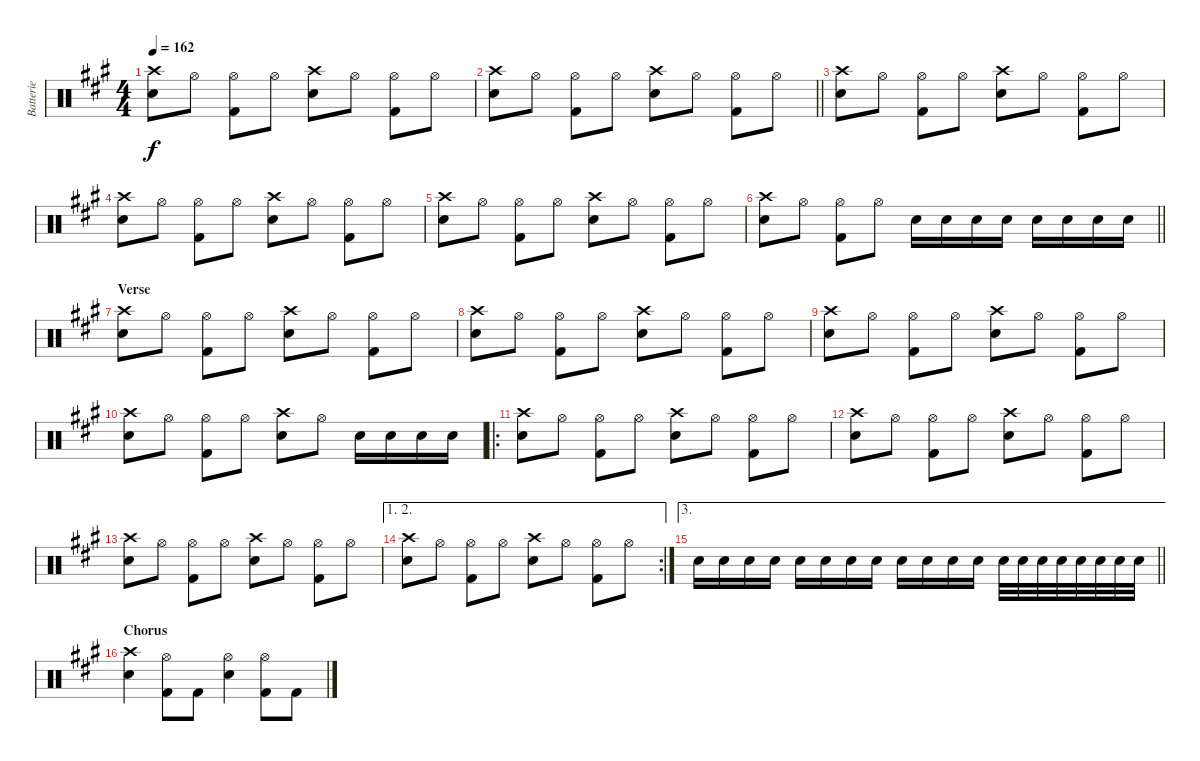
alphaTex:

\track ("Batterie" "Batterie") {instrument percussion}
\staff {score}
\articulation defaults
\ts (4 4)
\tempo 162
\clef neutral
\ks a
("Crash high (hit)" "Snare (hit) 2").8{dy f} "Hi-Hat (open)".8 ("Hi-Hat (open)" "Kick (hit) 2").8 "Hi-Hat (open)".8 ("Crash high (hit)" "Snare (hit) 2").8 "Hi-Hat (open)".8 ("Hi-Hat (open)" "Kick (hit) 2").8 "Hi-Hat (open)".8 |
\barLineRight lightlight
("Crash high (hit)" "Snare (hit) 2").8 "Hi-Hat (open)".8 ("Hi-Hat (open)" "Kick (hit) 2").8 "Hi-Hat (open)".8 ("Crash high (hit)" "Snare (hit) 2").8 "Hi-Hat (open)".8 ("Hi-Hat (open)" "Kick (hit) 2").8 "Hi-Hat (open)".8 |
("Crash high (hit)" "Snare (hit) 2").8 "Hi-Hat (open)".8 ("Hi-Hat (open)" "Kick (hit) 2").8 "Hi-Hat (open)".8 ("Crash high (hit)" "Snare (hit) 2").8 "Hi-Hat (open)".8 ("Hi-Hat (open)" "Kick (hit) 2").8 "Hi-Hat (open)".8 |
("Crash high (hit)" "Snare (hit) 2").8 "Hi-Hat (open)".8 ("Hi-Hat (open)" "Kick (hit) 2").8 "Hi-Hat (open)".8 ("Crash high (hit)" "Snare (hit) 2").8 "Hi-Hat (open)".8 ("Hi-Hat (open)" "Kick (hit) 2").8 "Hi-Hat (open)".8 |
("Crash high (hit)" "Snare (hit) 2").8 "Hi-Hat (open)".8 ("Hi-Hat (open)" "Kick (hit) 2").8 "Hi-Hat (open)".8 ("Crash high (hit)" "Snare (hit) 2").8 "Hi-Hat (open)".8 ("Hi-Hat (open)" "Kick (hit) 2").8 "Hi-Hat (open)".8 |
\barLineRight lightlight
("Crash high (hit)" "Snare (hit) 2").8 "Hi-Hat (open)".8 ("Hi-Hat (open)" "Kick (hit) 2").8 "Hi-Hat (open)".8 "Snare (hit) 2".16 "Snare (hit) 2".16 "Snare (hit) 2".16 "Snare (hit) 2".16 "Snare (hit) 2".16 "Snare (hit) 2".16 "Snare (hit) 2".16 "Snare (hit) 2".16 |
\section ("" "Verse")
("Crash high (hit)" "Snare (hit) 2").8 "Hi-Hat (open)".8 ("Hi-Hat (open)" "Kick (hit) 2").8 "Hi-Hat (open)".8 ("Crash high (hit)" "Snare (hit) 2").8 "Hi-Hat (open)".8 ("Hi-Hat (open)" "Kick (hit) 2").8 "Hi-Hat (open)".8 |
("Crash high (hit)" "Snare (hit) 2").8 "Hi-Hat (open)".8 ("Hi-Hat (open)" "Kick (hit) 2").8 "Hi-Hat (open)".8 ("Crash high (hit)" "Snare (hit) 2").8 "Hi-Hat (open)".8 ("Hi-Hat (open)" "Kick (hit) 2").8 "Hi-Hat (open)".8 |
("Crash high (hit)" "Snare (hit) 2").8 "Hi-Hat (open)".8 ("Hi-Hat (open)" "Kick (hit) 2").8 "Hi-Hat (open)".8 ("Crash high (hit)" "Snare (hit) 2").8 "Hi-Hat (open)".8 ("Hi-Hat (open)" "Kick (hit) 2").8 "Hi-Hat (open)".8 |
("Crash high (hit)" "Snare (hit) 2").8 "Hi-Hat (open)".8 ("Hi-Hat (open)" "Kick (hit) 2").8 "Hi-Hat (open)".8 ("Crash high (hit)" "Snare (hit) 2").8 "Hi-Hat (open)".8 "Snare (hit) 2".16 "Snare (hit) 2".16 "Snare (hit) 2".16 "Snare (hit) 2".16 |
\ro
("Crash high (hit)" "Snare (hit) 2").8 "Hi-Hat (open)".8 ("Hi-Hat (open)" "Kick (hit) 2").8 "Hi-Hat (open)".8 ("Crash high (hit)" "Snare (hit) 2").8 "Hi-Hat (open)".8 ("Hi-Hat (open)" "Kick (hit) 2").8 "Hi-Hat (open)".8 |
("Crash high (hit)" "Snare (hit) 2").8 "Hi-Hat (open)".8 ("Hi-Hat (open)" "Kick (hit) 2").8 "Hi-Hat (open)".8 ("Crash high (hit)" "Snare (hit) 2").8 "Hi-Hat (open)".8 ("Hi-Hat (open)" "Kick (hit) 2").8 "Hi-Hat (open)".8 |
("Crash high (hit)" "Snare (hit) 2").8 "Hi-Hat (open)".8 ("Hi-Hat (open)" "Kick (hit) 2").8 "Hi-Hat (open)".8 ("Crash high (hit)" "Snare (hit) 2").8 "Hi-Hat (open)".8 ("Hi-Hat (open)" "Kick (hit) 2").8 "Hi-Hat (open)".8 |
\ae (1 2)
\rc 2
("Crash high (hit)" "Snare (hit) 2").8 "Hi-Hat (open)".8 ("Hi-Hat (open)" "Kick (hit) 2").8 "Hi-Hat (open)".8 ("Crash high (hit)" "Snare (hit) 2").8 "Hi-Hat (open)".8 ("Hi-Hat (open)" "Kick (hit) 2").8 "Hi-Hat (open)".8 |
\ae 3
\barLineRight lightlight "Snare (hit) 2".16 "Snare (hit) 2".16 "Snare (hit) 2".16 "Snare (hit) 2".16 "Snare (hit) 2".16 "Snare (hit) 2".16 "Snare (hit) 2".16 "Snare (hit) 2".16 "Snare (hit) 2".16 "Snare (hit) 2".16 "Snare (hit) 2".16 "Snare (hit) 2".16 "Snare (hit) 2".32 "Snare (hit) 2".32 "Snare (hit) 2".32 "Snare (hit) 2".32 "Snare (hit) 2".32 "Snare (hit) 2".32 "Snare (hit) 2".32 "Snare (hit) 2".32
|
\section ("" "Chorus")
("Crash high (hit)" "Snare (hit) 2").4 ("Hi-Hat (open)" "Kick (hit) 2").8 "Kick (hit) 2".8 ("Hi-Hat (open)" "Snare (hit) 2").4 ("Hi-Hat (open)" "Kick (hit) 2").8 "Kick (hit) 2".8
